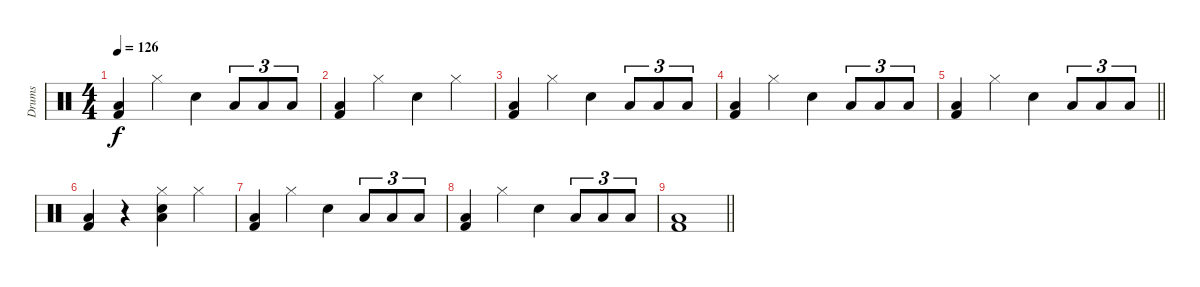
\track ("Drums" "Drums") {instrument percussion}
\staff {score}
\articulation defaults
\ts (4 4)
\tempo 126
\clef neutral
\ks c
("Low Floor Tom (hit)" "Kick (hit) 2").4{dy f} "Hi-Hat (closed)".4 "Electric Snare (hit)".4 "Low Floor Tom (hit)".8{tu (3 2)} "Low Floor Tom (hit)".8{tu (3 2)} "Low Floor Tom (hit)".8{tu (3 2)} |
("Low Floor Tom (hit)" "Kick (hit) 2").4 "Hi-Hat (closed)".4 "Electric Snare (hit)".4 "Hi-Hat (closed)".4 |
("Low Floor Tom (hit)" "Kick (hit) 2").4 "Hi-Hat (closed)".4 "Electric Snare (hit)".4 "Low Floor Tom (hit)".8{tu (3 2)} "Low Floor Tom (hit)".8{tu (3 2)} "Low Floor Tom (hit)".8{tu (3 2)} |
("Low Floor Tom (hit)" "Kick (hit) 2").4 "Hi-Hat (closed)".4 "Electric Snare (hit)".4 "Low Floor Tom (hit)".8{tu (3 2)} "Low Floor Tom (hit)".8{tu (3 2)} "Low Floor Tom (hit)".8{tu (3 2)} |
\barLineRight lightlight
("Low Floor Tom (hit)" "Kick (hit) 2").4 "Hi-Hat (closed)".4 "Electric Snare (hit)".4 "Low Floor Tom (hit)".8{tu (3 2)} "Low Floor Tom (hit)".8{tu (3 2)} "Low Floor Tom (hit)".8{tu (3 2)} |
("Low Floor Tom (hit)" "Kick (hit) 2").4 r.4 ("Hi-Hat (closed)" "Electric Snare (hit)" "Low Floor Tom (hit)").4 "Hi-Hat (closed)".4 |
("Low Floor Tom (hit)" "Kick (hit) 2").4 "Hi-Hat (closed)".4 "Electric Snare (hit)".4 "Low Floor Tom (hit)".8{tu (3 2)} "Low Floor Tom (hit)".8{tu (3 2)} "Low Floor Tom (hit)".8{tu (3 2)} |
("Low Floor Tom (hit)" "Kick (hit) 2").4 "Hi-Hat (closed)".4 "Electric Snare (hit)".4 "Low Floor Tom (hit)".8{tu (3 2)} "Low Floor Tom (hit)".8{tu (3 2)} "Low Floor Tom (hit)".8{tu (3 2)} |
\barLineRight lightlight
("Low Floor Tom (hit)" "Kick (hit) 2").1
